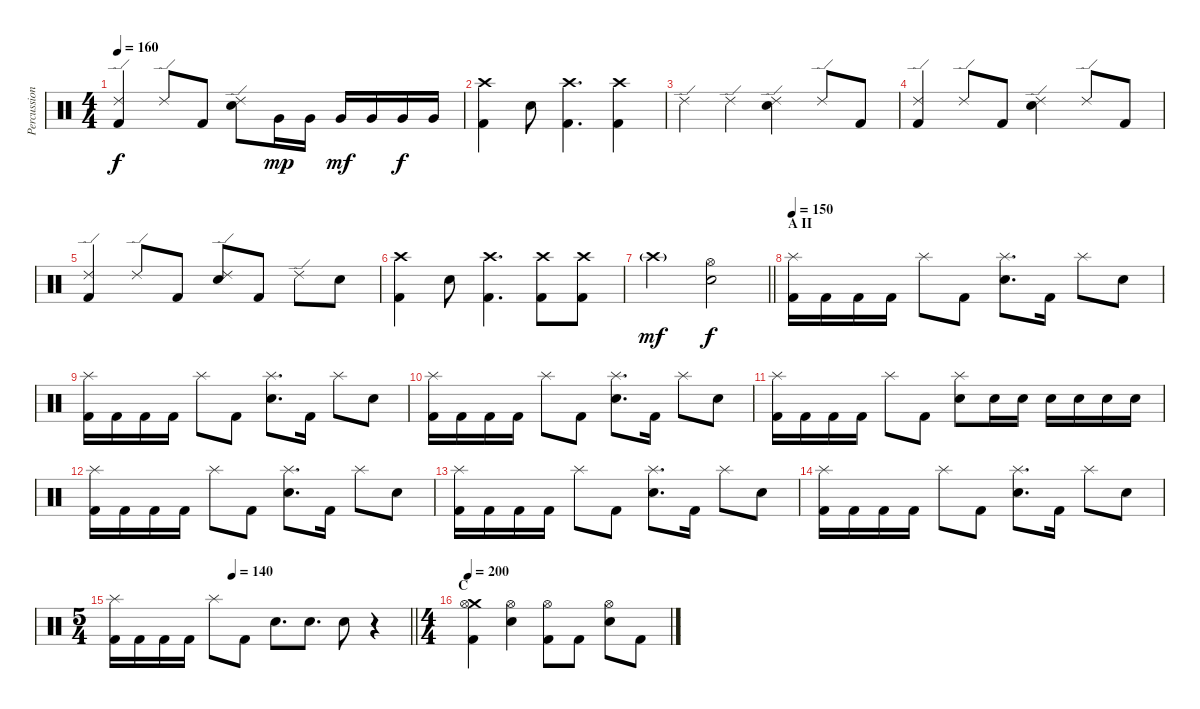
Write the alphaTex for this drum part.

\track ("Percussion" "Percussion") {instrument percussion}
\staff {score}
\articulation defaults
\ts (4 4)
\tempo 160
\clef neutral
\ks c
("Ride (edge) 2" "Kick (hit) 2").4{dy f} "Ride (edge) 2".8 "Kick (hit) 2".8 ("Ride (edge) 2" "Electric Snare (hit)").8 "Very Low Tom (hit)".16{dy mp} "Very Low Tom (hit)".16 "Very Low Tom (hit)".16{dy mf} "Very Low Tom (hit)".16 "Very Low Tom (hit)".16{dy f} "Very Low Tom (hit)".16 |
("Crash high (hit)" "Kick (hit) 2").4 "Electric Snare (hit)".8 ("Crash high (hit)" "Kick (hit) 2").4{d} ("Crash high (hit)" "Kick (hit) 2").4 |
"Ride (edge) 2".4 "Ride (edge) 2".4 ("Ride (edge) 2" "Electric Snare (hit)").4 "Ride (edge) 2".8 "Kick (hit) 2".8 |
("Ride (edge) 2" "Kick (hit) 2").4 "Ride (edge) 2".8 "Kick (hit) 2".8 ("Ride (edge) 2" "Electric Snare (hit)").4 "Ride (edge) 2".8 "Kick (hit) 2".8 |
("Ride (edge) 2" "Kick (hit) 2").4 "Ride (edge) 2".8 "Kick (hit) 2".8 ("Ride (edge) 2" "Electric Snare (hit)").8 "Kick (hit) 2".8 "Ride (edge) 2".8 "Electric Snare (hit)".8 |
("Crash high (hit)" "Kick (hit) 2").4 "Electric Snare (hit)".8 ("Crash high (hit)" "Kick (hit) 2").4{d} ("Crash high (hit)" "Kick (hit) 2").8 ("Crash high (hit)" "Kick (hit) 2").8 |
\barLineRight lightlight "Crash high (hit)"{g}.2{dy mf}
("Hi-Hat (open)" "Electric Snare (hit)").2{dy f} |
\section ("" "A II")
\tempo 150
("Splash (hit)" "Kick (hit) 2").16 "Kick (hit) 2".16 "Kick (hit) 2".16 "Kick (hit) 2".16 "Splash (hit)".8 "Kick (hit) 2".8 ("Splash (hit)" "Electric Snare (hit)").8{d} "Kick (hit) 2".16 "Splash (hit)".8 "Electric Snare (hit)".8 |
("Splash (hit)" "Kick (hit) 2").16 "Kick (hit) 2".16 "Kick (hit) 2".16 "Kick (hit) 2".16 "Splash (hit)".8 "Kick (hit) 2".8 ("Splash (hit)" "Electric Snare (hit)").8{d} "Kick (hit) 2".16 "Splash (hit)".8 "Electric Snare (hit)".8 |
("Splash (hit)" "Kick (hit) 2").16 "Kick (hit) 2".16 "Kick (hit) 2".16 "Kick (hit) 2".16 "Splash (hit)".8 "Kick (hit) 2".8 ("Splash (hit)" "Electric Snare (hit)").8{d} "Kick (hit) 2".16 "Splash (hit)".8 "Electric Snare (hit)".8 |
("Splash (hit)" "Kick (hit) 2").16 "Kick (hit) 2".16 "Kick (hit) 2".16 "Kick (hit) 2".16 "Splash (hit)".8 "Kick (hit) 2".8 ("Splash (hit)" "Electric Snare (hit)").8 "Electric Snare (hit)".16 "Electric Snare (hit)".16 "Electric Snare (hit)".16 "Electric Snare (hit)".16 "Electric Snare (hit)".16 "Electric Snare (hit)".16 |
("Splash (hit)" "Kick (hit) 2").16 "Kick (hit) 2".16 "Kick (hit) 2".16 "Kick (hit) 2".16 "Splash (hit)".8 "Kick (hit) 2".8 ("Splash (hit)" "Electric Snare (hit)").8{d} "Kick (hit) 2".16 "Splash (hit)".8 "Electric Snare (hit)".8 |
("Splash (hit)" "Kick (hit) 2").16 "Kick (hit) 2".16 "Kick (hit) 2".16 "Kick (hit) 2".16 "Splash (hit)".8 "Kick (hit) 2".8 ("Splash (hit)" "Electric Snare (hit)").8{d} "Kick (hit) 2".16 "Splash (hit)".8 "Electric Snare (hit)".8 |
("Splash (hit)" "Kick (hit) 2").16 "Kick (hit) 2".16 "Kick (hit) 2".16 "Kick (hit) 2".16 "Splash (hit)".8 "Kick (hit) 2".8 ("Splash (hit)" "Electric Snare (hit)").8{d} "Kick (hit) 2".16 "Splash (hit)".8 "Electric Snare (hit)".8 |
\ts (5 4)
\tempo (140 0.4)
\barLineRight lightlight
("Splash (hit)" "Kick (hit) 2").16 "Kick (hit) 2".16 "Kick (hit) 2".16 "Kick (hit) 2".16 "Splash (hit)".8 "Kick (hit) 2".8 "Electric Snare (hit)".8{d} "Electric Snare (hit)".8{d} "Electric Snare (hit)".8 r.4 |
\ts (4 4)
\section ("" "C")
\tempo 200
("Crash medium (hit)" "Hi-Hat (open)" "Kick (hit) 2").4 ("Hi-Hat (open)" "Electric Snare (hit)").4 ("Hi-Hat (open)" "Kick (hit) 2").8 "Kick (hit) 2".8 ("Hi-Hat (open)" "Electric Snare (hit)").8 "Kick (hit) 2".8
